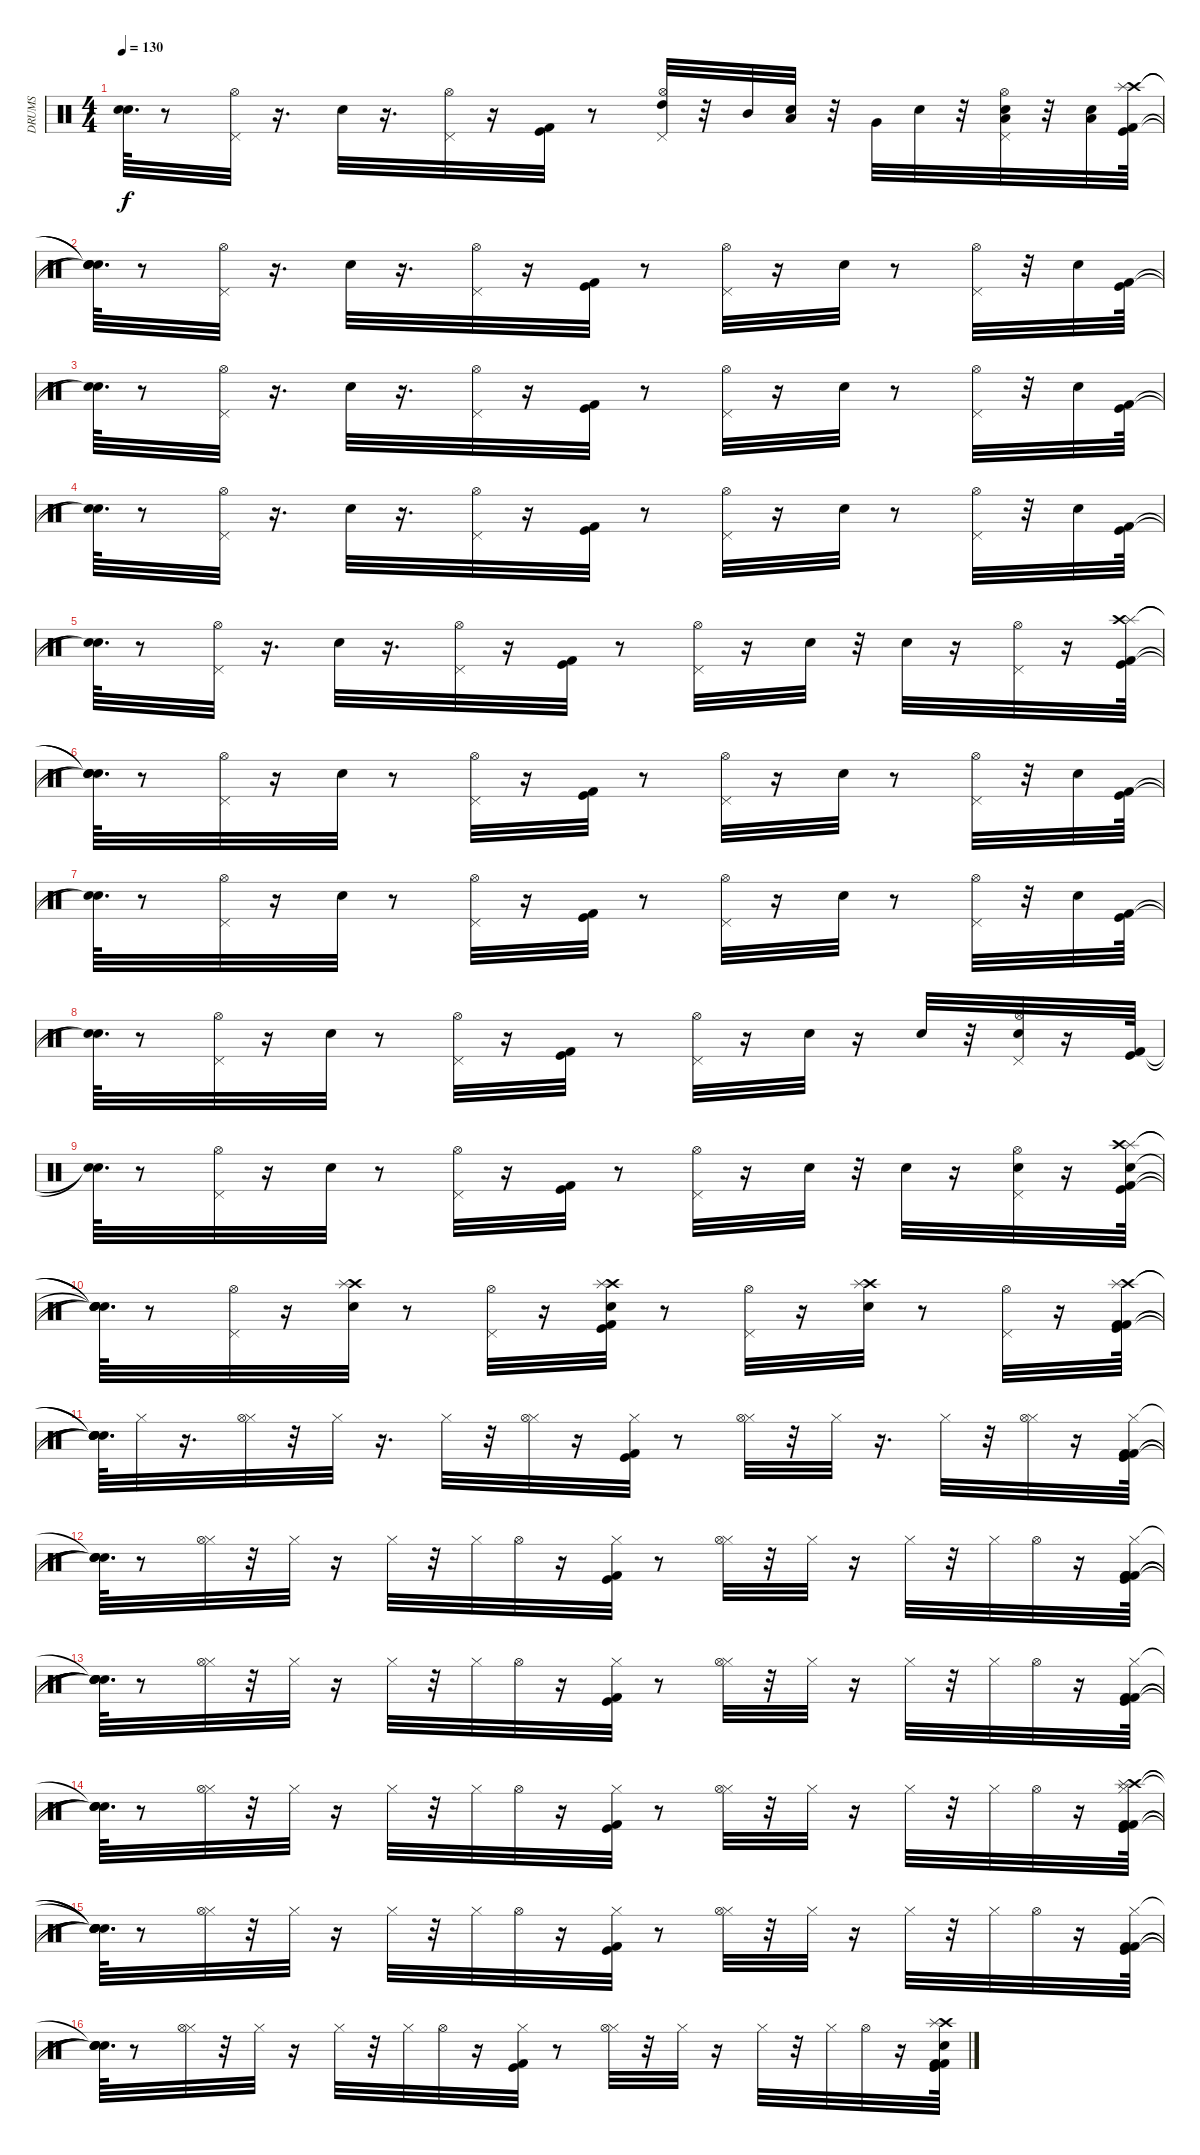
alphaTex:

\track ("DRUMS" "DRUMS") {instrument percussion}
\staff {score}
\articulation defaults
\ts (4 4)
\tempo 130
\clef neutral
\ks c
("Snare (hit)"{t} "Snare (hit)"{t}).64{d dy f} r.8 ("Pedal Hi-Hat (hit)" "Hi-Hat (open)").32 r.16{d} "Electric Snare (hit)".32 r.16{d} ("Pedal Hi-Hat (hit)" "Hi-Hat (open)").32 r.16 ("Kick (hit) 2" "Kick (hit)").32 r.8 ("High Tom (hit)" "Pedal Hi-Hat (hit)" "Hi-Hat (open)").32 r.32 "Mid Tom (hit)".32 ("Low Tom (hit)" "Electric Snare (hit)").32 r.32 "Very Low Tom (hit)".32 "Electric Snare (hit)".32 r.32 ("Pedal Hi-Hat (hit)" "Electric Snare (hit)" "Low Floor Tom (hit)" "Hi-Hat (open)").32 r.32 ("Low Floor Tom (hit)" "Electric Snare (hit)").32 ("Crash high (hit)" "Splash (hit)" "Kick (hit)" "Kick (hit) 2").64 |
("Snare (hit)"{t} "Snare (hit)"{t} "Snare (hit)"{t} "Snare (hit)"{t}).64{d} r.8 ("Pedal Hi-Hat (hit)" "Hi-Hat (open)").32 r.16{d} "Electric Snare (hit)".32 r.16{d} ("Pedal Hi-Hat (hit)" "Hi-Hat (open)").32 r.16 ("Kick (hit) 2" "Kick (hit)").32 r.8 ("Pedal Hi-Hat (hit)" "Hi-Hat (open)").32 r.16 "Electric Snare (hit)".32 r.8 ("Pedal Hi-Hat (hit)" "Hi-Hat (open)").32 r.32 "Electric Snare (hit)".32 ("Kick (hit)" "Kick (hit) 2").64 |
("Snare (hit)"{t} "Snare (hit)"{t}).64{d} r.8 ("Pedal Hi-Hat (hit)" "Hi-Hat (open)").32 r.16{d} "Electric Snare (hit)".32 r.16{d} ("Pedal Hi-Hat (hit)" "Hi-Hat (open)").32 r.16 ("Kick (hit) 2" "Kick (hit)").32 r.8 ("Pedal Hi-Hat (hit)" "Hi-Hat (open)").32 r.16 "Electric Snare (hit)".32 r.8 ("Pedal Hi-Hat (hit)" "Hi-Hat (open)").32 r.32 "Electric Snare (hit)".32 ("Kick (hit)" "Kick (hit) 2").64 |
("Snare (hit)"{t} "Snare (hit)"{t}).64{d} r.8 ("Pedal Hi-Hat (hit)" "Hi-Hat (open)").32 r.16{d} "Electric Snare (hit)".32 r.16{d} ("Pedal Hi-Hat (hit)" "Hi-Hat (open)").32 r.16 ("Kick (hit) 2" "Kick (hit)").32 r.8 ("Pedal Hi-Hat (hit)" "Hi-Hat (open)").32 r.16 "Electric Snare (hit)".32 r.8 ("Pedal Hi-Hat (hit)" "Hi-Hat (open)").32 r.32 "Electric Snare (hit)".32 ("Kick (hit)" "Kick (hit) 2").64 |
("Snare (hit)"{t} "Snare (hit)"{t}).64{d} r.8 ("Pedal Hi-Hat (hit)" "Hi-Hat (open)").32 r.16{d} "Electric Snare (hit)".32 r.16{d} ("Pedal Hi-Hat (hit)" "Hi-Hat (open)").32 r.16 ("Kick (hit) 2" "Kick (hit)").32 r.8 ("Pedal Hi-Hat (hit)" "Hi-Hat (open)").32 r.16 "Electric Snare (hit)".32 r.32 "Electric Snare (hit)".32 r.16 ("Pedal Hi-Hat (hit)" "Hi-Hat (open)").32 r.16 ("Splash (hit)" "Kick (hit)" "Kick (hit) 2" "Crash high (hit)").64 |
("Snare (hit)"{t} "Snare (hit)"{t} "Snare (hit)"{t} "Snare (hit)"{t}).64{d} r.8 ("Pedal Hi-Hat (hit)" "Hi-Hat (open)").32 r.16 "Electric Snare (hit)".32 r.8 ("Pedal Hi-Hat (hit)" "Hi-Hat (open)").32 r.16 ("Kick (hit) 2" "Kick (hit)").32 r.8 ("Pedal Hi-Hat (hit)" "Hi-Hat (open)").32 r.16 "Electric Snare (hit)".32 r.8 ("Pedal Hi-Hat (hit)" "Hi-Hat (open)").32 r.32 "Electric Snare (hit)".32 ("Kick (hit)" "Kick (hit) 2").64 |
("Snare (hit)"{t} "Snare (hit)"{t}).64{d} r.8 ("Pedal Hi-Hat (hit)" "Hi-Hat (open)").32 r.16 "Electric Snare (hit)".32 r.8 ("Pedal Hi-Hat (hit)" "Hi-Hat (open)").32 r.16 ("Kick (hit) 2" "Kick (hit)").32 r.8 ("Pedal Hi-Hat (hit)" "Hi-Hat (open)").32 r.16 "Electric Snare (hit)".32 r.8 ("Pedal Hi-Hat (hit)" "Hi-Hat (open)").32 r.32 "Electric Snare (hit)".32 ("Kick (hit)" "Kick (hit) 2").64 |
("Snare (hit)"{t} "Snare (hit)"{t}).64{d} r.8 ("Pedal Hi-Hat (hit)" "Hi-Hat (open)").32 r.16 "Electric Snare (hit)".32 r.8 ("Pedal Hi-Hat (hit)" "Hi-Hat (open)").32 r.16 ("Kick (hit) 2" "Kick (hit)").32 r.8 ("Pedal Hi-Hat (hit)" "Hi-Hat (open)").32 r.16 "Electric Snare (hit)".32 r.16 "Electric Snare (hit)".32 r.32 ("Pedal Hi-Hat (hit)" "Electric Snare (hit)" "Hi-Hat (open)").32 r.16 ("Kick (hit)" "Kick (hit) 2").64 |
("Snare (hit)"{t} "Snare (hit)"{t}).64{d} r.8 ("Pedal Hi-Hat (hit)" "Hi-Hat (open)").32 r.16 "Electric Snare (hit)".32 r.8 ("Pedal Hi-Hat (hit)" "Hi-Hat (open)").32 r.16 ("Kick (hit) 2" "Kick (hit)").32 r.8 ("Pedal Hi-Hat (hit)" "Hi-Hat (open)").32 r.16 "Electric Snare (hit)".32 r.32 "Electric Snare (hit)".32 r.16 ("Pedal Hi-Hat (hit)" "Electric Snare (hit)" "Hi-Hat (open)").32 r.16 ("Electric Snare (hit)" "Splash (hit)" "Kick (hit)" "Kick (hit) 2" "Crash high (hit)").64 |
("Snare (hit)"{t} "Snare (hit)"{t} "Snare (hit)"{t} "Snare (hit)"{t} "Snare (hit)"{t}).64{d} r.8 ("Pedal Hi-Hat (hit)" "Hi-Hat (open)").32 r.16 ("Electric Snare (hit)" "Crash high (hit)" "Splash (hit)").32 r.8 ("Pedal Hi-Hat (hit)" "Hi-Hat (open)").32 r.16 ("Electric Snare (hit)" "Kick (hit) 2" "Kick (hit)" "Crash high (hit)" "Splash (hit)").32 r.8 ("Pedal Hi-Hat (hit)" "Hi-Hat (open)").32 r.16 ("Electric Snare (hit)" "Crash high (hit)" "Splash (hit)").32 r.8 ("Pedal Hi-Hat (hit)" "Hi-Hat (open)").32 r.16 ("Kick (hit) 2" "Kick (hit)" "Kick (hit) 2" "Crash high (hit)" "Splash (hit)").64 |
("Snare (hit)"{t} "Snare (hit)"{t} "Snare (hit)"{t} "Snare (hit)"{t} "Snare (hit)"{t}).64{d} "Hi-Hat (closed)".32 r.16{d} ("Hi-Hat (closed)" "Hi-Hat (open)").32 r.32 "Hi-Hat (closed)".32 r.16{d} "Hi-Hat (closed)".32 r.32 ("Hi-Hat (closed)" "Hi-Hat (open)").32 r.16 ("Kick (hit) 2" "Kick (hit)" "Hi-Hat (closed)").32 r.8 ("Hi-Hat (closed)" "Hi-Hat (open)").32 r.32 "Hi-Hat (closed)".32 r.16{d} "Hi-Hat (closed)".32 r.32 ("Hi-Hat (closed)" "Hi-Hat (open)").32 r.16 ("Kick (hit) 2" "Kick (hit)" "Kick (hit) 2" "Hi-Hat (closed)").64 |
("Snare (hit)"{t} "Snare (hit)"{t} "Snare (hit)"{t} "Snare (hit)"{t}).64{d} r.8 ("Hi-Hat (closed)" "Hi-Hat (open)").32 r.32 "Hi-Hat (closed)".32 r.16 "Hi-Hat (closed)".32 r.32 "Hi-Hat (closed)".32 "Hi-Hat (open)".32 r.16 ("Kick (hit) 2" "Kick (hit)" "Hi-Hat (closed)").32 r.8 ("Hi-Hat (closed)" "Hi-Hat (open)").32 r.32 "Hi-Hat (closed)".32 r.16 "Hi-Hat (closed)".32 r.32 "Hi-Hat (closed)".32 "Hi-Hat (open)".32 r.16 ("Kick (hit) 2" "Kick (hit) 2" "Kick (hit)" "Kick (hit) 2" "Hi-Hat (closed)").64 |
("Snare (hit)"{t} "Snare (hit)"{t} "Snare (hit)"{t} "Snare (hit)"{t} "Snare (hit)"{t}).64{d} r.8 ("Hi-Hat (closed)" "Hi-Hat (open)").32 r.32 "Hi-Hat (closed)".32 r.16 "Hi-Hat (closed)".32 r.32 "Hi-Hat (closed)".32 "Hi-Hat (open)".32 r.16 ("Kick (hit) 2" "Kick (hit)" "Hi-Hat (closed)").32 r.8 ("Hi-Hat (closed)" "Hi-Hat (open)").32 r.32 "Hi-Hat (closed)".32 r.16 "Hi-Hat (closed)".32 r.32 "Hi-Hat (closed)".32 "Hi-Hat (open)".32 r.16 ("Kick (hit) 2" "Kick (hit)" "Kick (hit) 2" "Hi-Hat (closed)").64 |
("Snare (hit)"{t} "Snare (hit)"{t} "Snare (hit)"{t} "Snare (hit)"{t}).64{d} r.8 ("Hi-Hat (closed)" "Hi-Hat (open)").32 r.32 "Hi-Hat (closed)".32 r.16 "Hi-Hat (closed)".32 r.32 "Hi-Hat (closed)".32 "Hi-Hat (open)".32 r.16 ("Kick (hit) 2" "Kick (hit)" "Hi-Hat (closed)").32 r.8 ("Hi-Hat (closed)" "Hi-Hat (open)").32 r.32 "Hi-Hat (closed)".32 r.16 "Hi-Hat (closed)".32 r.32 "Hi-Hat (closed)".32 "Hi-Hat (open)".32 r.16 ("Kick (hit) 2" "Kick (hit)" "Kick (hit) 2" "Crash high (hit)" "Splash (hit)" "Hi-Hat (closed)").64 |
("Snare (hit)"{t} "Snare (hit)"{t} "Snare (hit)"{t} "Snare (hit)"{t} "Snare (hit)"{t} "Snare (hit)"{t}).64{d} r.8 ("Hi-Hat (closed)" "Hi-Hat (open)").32 r.32 "Hi-Hat (closed)".32 r.16 "Hi-Hat (closed)".32 r.32 "Hi-Hat (closed)".32 "Hi-Hat (open)".32 r.16 ("Kick (hit) 2" "Kick (hit)" "Hi-Hat (closed)").32 r.8 ("Hi-Hat (closed)" "Hi-Hat (open)").32 r.32 "Hi-Hat (closed)".32 r.16 "Hi-Hat (closed)".32 r.32 "Hi-Hat (closed)".32 "Hi-Hat (open)".32 r.16 ("Kick (hit) 2" "Kick (hit)" "Kick (hit) 2" "Hi-Hat (closed)").64 |
("Snare (hit)"{t} "Snare (hit)"{t} "Snare (hit)"{t} "Snare (hit)"{t}).64{d} r.8 ("Hi-Hat (closed)" "Hi-Hat (open)").32 r.32 "Hi-Hat (closed)".32 r.16 "Hi-Hat (closed)".32 r.32 "Hi-Hat (closed)".32 "Hi-Hat (open)".32 r.16 ("Kick (hit) 2" "Kick (hit)" "Hi-Hat (closed)").32 r.8 ("Hi-Hat (closed)" "Hi-Hat (open)").32 r.32 "Hi-Hat (closed)".32 r.16 "Hi-Hat (closed)".32 r.32 "Hi-Hat (closed)".32 "Hi-Hat (open)".32 r.16 ("Kick (hit) 2" "Kick (hit)" "Kick (hit) 2" "Snare (hit) 2" "Crash high (hit)" "Splash (hit)").64
